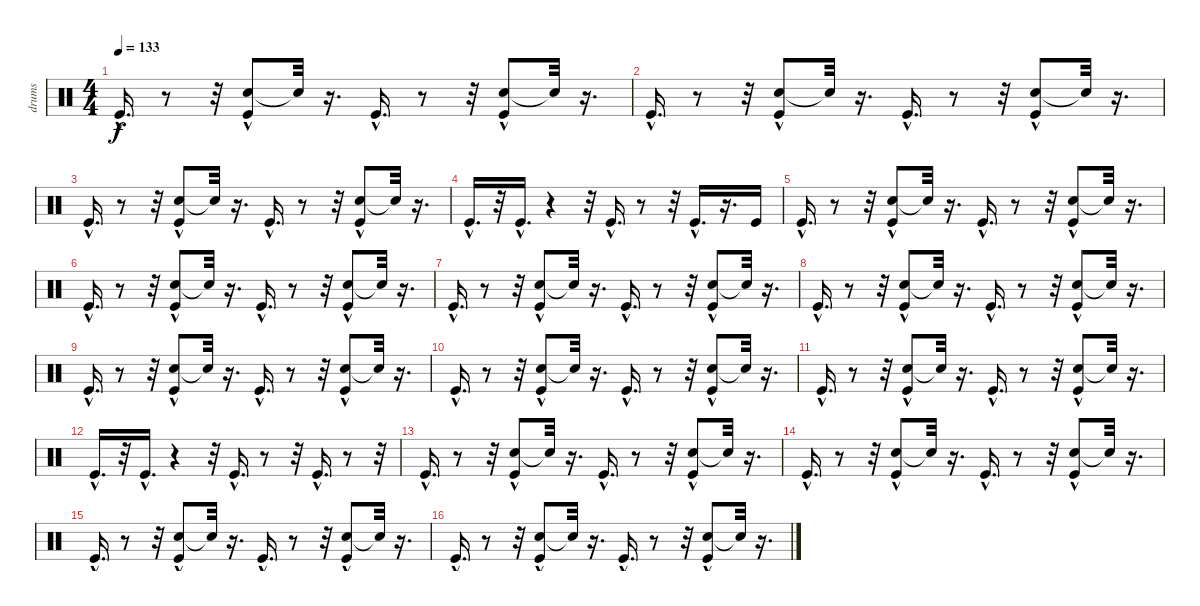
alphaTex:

\track ("drums" "drums") {instrument percussion}
\staff {score}
\articulation defaults
\ts (4 4)
\tempo 133
\clef neutral
\ks c "Kick (hit)"{hac}.16{d dy f}
r.8 r.32 ("Hand Clap (hit)" "Kick (hit)"{hac}).8 "Snare (hit)"{t}.32 r.16{d} "Kick (hit)"{hac}.16{d} r.8 r.32 ("Hand Clap (hit)" "Kick (hit)"{hac}).8 "Snare (hit)"{t}.32 r.16{d} |
"Kick (hit)"{hac}.16{d} r.8 r.32 ("Hand Clap (hit)" "Kick (hit)"{hac}).8 "Snare (hit)"{t}.32 r.16{d} "Kick (hit)"{hac}.16{d} r.8 r.32 ("Hand Clap (hit)" "Kick (hit)"{hac}).8 "Snare (hit)"{t}.32 r.16{d} |
"Kick (hit)"{hac}.16{d} r.8 r.32 ("Hand Clap (hit)" "Kick (hit)"{hac}).8 "Snare (hit)"{t}.32 r.16{d} "Kick (hit)"{hac}.16{d} r.8 r.32 ("Hand Clap (hit)" "Kick (hit)"{hac}).8 "Snare (hit)"{t}.32 r.16{d} |
"Kick (hit)"{hac}.16{d} r.32 "Kick (hit)"{hac}.16{d} r.4 r.32 "Kick (hit)"{hac}.16{d} r.8 r.32 "Kick (hit)"{hac}.16{d} r.16{d} "Kick (hit)".16 |
"Kick (hit)"{hac}.16{d} r.8 r.32 ("Hand Clap (hit)" "Kick (hit)"{hac}).8 "Snare (hit)"{t}.32 r.16{d} "Kick (hit)"{hac}.16{d} r.8 r.32 ("Hand Clap (hit)" "Kick (hit)"{hac}).8 "Snare (hit)"{t}.32 r.16{d} |
"Kick (hit)"{hac}.16{d} r.8 r.32 ("Hand Clap (hit)" "Kick (hit)"{hac}).8 "Snare (hit)"{t}.32 r.16{d} "Kick (hit)"{hac}.16{d} r.8 r.32 ("Hand Clap (hit)" "Kick (hit)"{hac}).8 "Snare (hit)"{t}.32 r.16{d} |
"Kick (hit)"{hac}.16{d} r.8 r.32 ("Hand Clap (hit)" "Kick (hit)"{hac}).8 "Snare (hit)"{t}.32 r.16{d} "Kick (hit)"{hac}.16{d} r.8 r.32 ("Hand Clap (hit)" "Kick (hit)"{hac}).8 "Snare (hit)"{t}.32 r.16{d} |
"Kick (hit)"{hac}.16{d} r.8 r.32 ("Hand Clap (hit)" "Kick (hit)"{hac}).8 "Snare (hit)"{t}.32 r.16{d} "Kick (hit)"{hac}.16{d} r.8 r.32 ("Hand Clap (hit)" "Kick (hit)"{hac}).8 "Snare (hit)"{t}.32 r.16{d} |
"Kick (hit)"{hac}.16{d} r.8 r.32 ("Hand Clap (hit)" "Kick (hit)"{hac}).8 "Snare (hit)"{t}.32 r.16{d} "Kick (hit)"{hac}.16{d} r.8 r.32 ("Hand Clap (hit)" "Kick (hit)"{hac}).8 "Snare (hit)"{t}.32 r.16{d} |
"Kick (hit)"{hac}.16{d} r.8 r.32 ("Hand Clap (hit)" "Kick (hit)"{hac}).8 "Snare (hit)"{t}.32 r.16{d} "Kick (hit)"{hac}.16{d} r.8 r.32 ("Hand Clap (hit)" "Kick (hit)"{hac}).8 "Snare (hit)"{t}.32 r.16{d} |
"Kick (hit)"{hac}.16{d} r.8 r.32 ("Hand Clap (hit)" "Kick (hit)"{hac}).8 "Snare (hit)"{t}.32 r.16{d} "Kick (hit)"{hac}.16{d} r.8 r.32 ("Hand Clap (hit)" "Kick (hit)"{hac}).8 "Snare (hit)"{t}.32 r.16{d} |
"Kick (hit)"{hac}.16{d} r.32 "Kick (hit)"{hac}.16{d} r.4 r.32 "Kick (hit)"{hac}.16{d} r.8 r.32 "Kick (hit)"{hac}.16{d} r.8 r.32 |
"Kick (hit)"{hac}.16{d} r.8 r.32 ("Hand Clap (hit)" "Kick (hit)"{hac}).8 "Snare (hit)"{t}.32 r.16{d} "Kick (hit)"{hac}.16{d} r.8 r.32 ("Hand Clap (hit)" "Kick (hit)"{hac}).8 "Snare (hit)"{t}.32 r.16{d} |
"Kick (hit)"{hac}.16{d} r.8 r.32 ("Hand Clap (hit)" "Kick (hit)"{hac}).8 "Snare (hit)"{t}.32 r.16{d} "Kick (hit)"{hac}.16{d} r.8 r.32 ("Hand Clap (hit)" "Kick (hit)"{hac}).8 "Snare (hit)"{t}.32 r.16{d} |
"Kick (hit)"{hac}.16{d} r.8 r.32 ("Hand Clap (hit)" "Kick (hit)"{hac}).8 "Snare (hit)"{t}.32 r.16{d} "Kick (hit)"{hac}.16{d} r.8 r.32 ("Hand Clap (hit)" "Kick (hit)"{hac}).8 "Snare (hit)"{t}.32 r.16{d} |
"Kick (hit)"{hac}.16{d} r.8 r.32 ("Hand Clap (hit)" "Kick (hit)"{hac}).8 "Snare (hit)"{t}.32 r.16{d} "Kick (hit)"{hac}.16{d} r.8 r.32 ("Hand Clap (hit)" "Kick (hit)"{hac}).8 "Snare (hit)"{t}.32 r.16{d}
